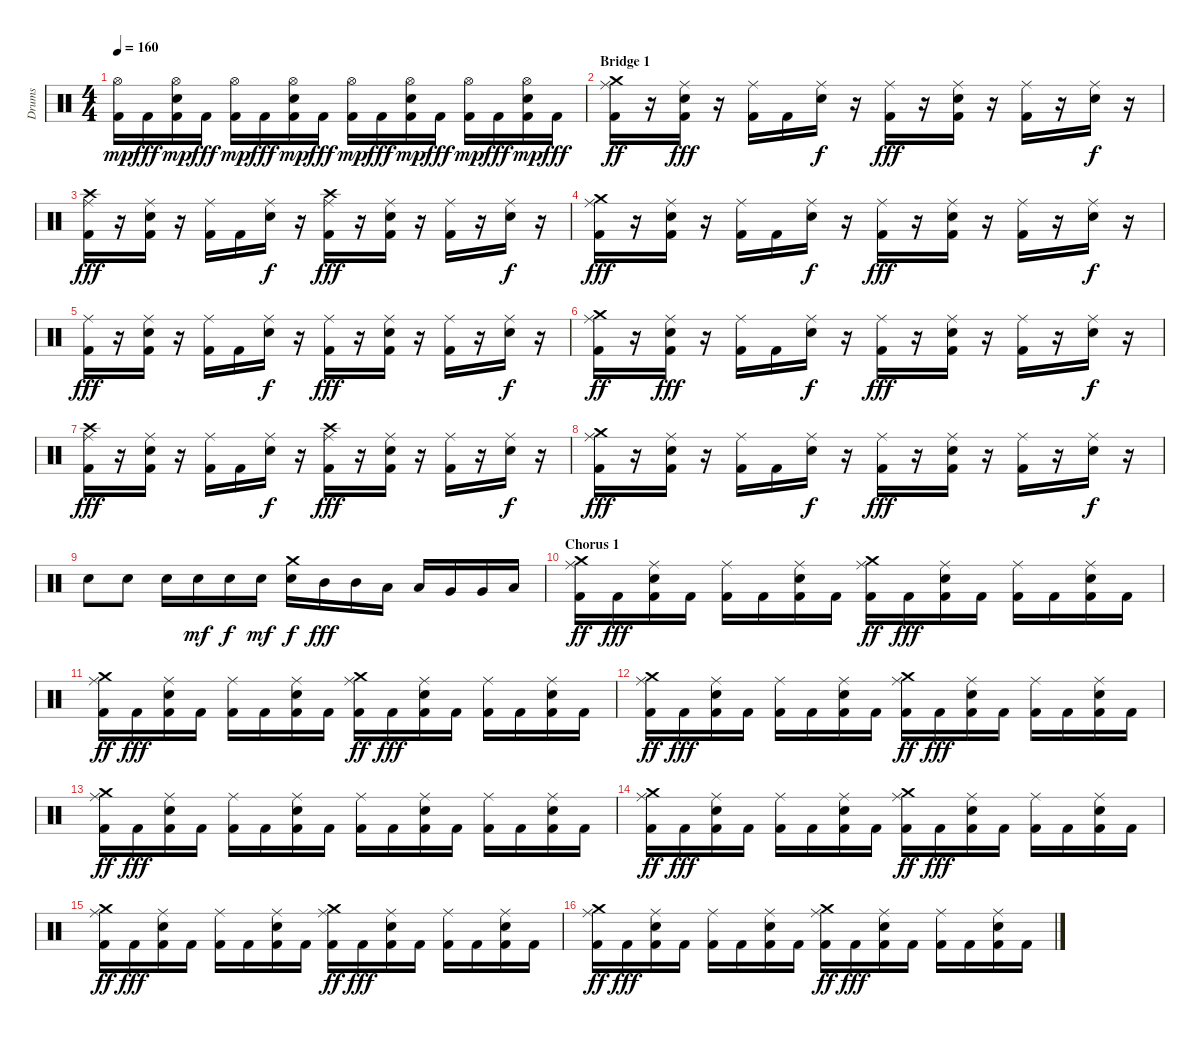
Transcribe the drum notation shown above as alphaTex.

\track ("Drums" "Drums") {instrument percussion}
\staff {score}
\articulation defaults
\ts (4 4)
\tempo 160
\clef neutral
\ks c
("Kick (hit) 2" "Hi-Hat (open)").16{dy mp} "Kick (hit) 2".16{dy fff} ("Kick (hit) 2" "Hi-Hat (open)" "Snare (hit) 2").16{dy mp} "Kick (hit) 2".16{dy fff} ("Kick (hit) 2" "Hi-Hat (open)").16{dy mp} "Kick (hit) 2".16{dy fff} ("Kick (hit) 2" "Hi-Hat (open)" "Snare (hit) 2").16{dy mp} "Kick (hit) 2".16{dy fff} ("Kick (hit) 2" "Hi-Hat (open)").16{dy mp} "Kick (hit) 2".16{dy fff} ("Kick (hit) 2" "Hi-Hat (open)" "Snare (hit) 2").16{dy mp} "Kick (hit) 2".16{dy fff} ("Kick (hit) 2" "Hi-Hat (open)").16{dy mp} "Kick (hit) 2".16{dy fff} ("Kick (hit) 2" "Hi-Hat (open)" "Snare (hit) 2").16{dy mp} "Kick (hit) 2".16{dy fff} |
\section ("" "Bridge 1")
("Kick (hit) 2" "Ride (middle)" "Crash medium (hit)").16{dy ff} r.16 ("Kick (hit) 2" "Ride (middle)" "Snare (hit) 2").16{dy fff} r.16 ("Kick (hit) 2" "Ride (middle)").16 "Kick (hit) 2".16 ("Ride (middle)" "Snare (hit) 2").16{dy f} r.16 ("Kick (hit) 2" "Ride (middle)").16{dy fff} r.16 ("Kick (hit) 2" "Ride (middle)" "Snare (hit) 2").16 r.16 ("Kick (hit) 2" "Ride (middle)").16 r.16 ("Ride (middle)" "Snare (hit) 2").16{dy f} r.16 |
("Kick (hit) 2" "Ride (middle)" "Crash high (hit)").16{dy fff} r.16 ("Kick (hit) 2" "Ride (middle)" "Snare (hit) 2").16 r.16 ("Kick (hit) 2" "Ride (middle)").16 "Kick (hit) 2".16 ("Ride (middle)" "Snare (hit) 2").16{dy f} r.16 ("Kick (hit) 2" "Ride (middle)" "Crash high (hit)").16{dy fff} r.16 ("Kick (hit) 2" "Ride (middle)" "Snare (hit) 2").16 r.16 ("Kick (hit) 2" "Ride (middle)").16 r.16 ("Ride (middle)" "Snare (hit) 2").16{dy f} r.16 |
("Kick (hit) 2" "Ride (middle)" "Crash medium (hit)").16{dy fff} r.16 ("Kick (hit) 2" "Ride (middle)" "Snare (hit) 2").16 r.16 ("Kick (hit) 2" "Ride (middle)").16 "Kick (hit) 2".16 ("Ride (middle)" "Snare (hit) 2").16{dy f} r.16 ("Kick (hit) 2" "Ride (middle)").16{dy fff} r.16 ("Kick (hit) 2" "Ride (middle)" "Snare (hit) 2").16 r.16 ("Kick (hit) 2" "Ride (middle)").16 r.16 ("Ride (middle)" "Snare (hit) 2").16{dy f} r.16 |
("Kick (hit) 2" "Ride (middle)").16{dy fff} r.16 ("Kick (hit) 2" "Ride (middle)" "Snare (hit) 2").16 r.16 ("Kick (hit) 2" "Ride (middle)").16 "Kick (hit) 2".16 ("Ride (middle)" "Snare (hit) 2").16{dy f} r.16 ("Kick (hit) 2" "Ride (middle)").16{dy fff} r.16 ("Kick (hit) 2" "Ride (middle)" "Snare (hit) 2").16 r.16 ("Kick (hit) 2" "Ride (middle)").16 r.16 ("Ride (middle)" "Snare (hit) 2").16{dy f} r.16 |
("Kick (hit) 2" "Ride (middle)" "Crash medium (hit)").16{dy ff} r.16 ("Kick (hit) 2" "Ride (middle)" "Snare (hit) 2").16{dy fff} r.16 ("Kick (hit) 2" "Ride (middle)").16 "Kick (hit) 2".16 ("Ride (middle)" "Snare (hit) 2").16{dy f} r.16 ("Kick (hit) 2" "Ride (middle)").16{dy fff} r.16 ("Kick (hit) 2" "Ride (middle)" "Snare (hit) 2").16 r.16 ("Kick (hit) 2" "Ride (middle)").16 r.16 ("Ride (middle)" "Snare (hit) 2").16{dy f} r.16 |
("Kick (hit) 2" "Ride (middle)" "Crash high (hit)").16{dy fff} r.16 ("Kick (hit) 2" "Ride (middle)" "Snare (hit) 2").16 r.16 ("Kick (hit) 2" "Ride (middle)").16 "Kick (hit) 2".16 ("Ride (middle)" "Snare (hit) 2").16{dy f} r.16 ("Kick (hit) 2" "Ride (middle)" "Crash high (hit)").16{dy fff} r.16 ("Kick (hit) 2" "Ride (middle)" "Snare (hit) 2").16 r.16 ("Kick (hit) 2" "Ride (middle)").16 r.16 ("Ride (middle)" "Snare (hit) 2").16{dy f} r.16 |
("Kick (hit) 2" "Ride (middle)" "Crash medium (hit)").16{dy fff} r.16 ("Kick (hit) 2" "Ride (middle)" "Snare (hit) 2").16 r.16 ("Kick (hit) 2" "Ride (middle)").16 "Kick (hit) 2".16 ("Ride (middle)" "Snare (hit) 2").16{dy f} r.16 ("Kick (hit) 2" "Ride (middle)").16{dy fff} r.16 ("Kick (hit) 2" "Ride (middle)" "Snare (hit) 2").16 r.16 ("Kick (hit) 2" "Ride (middle)").16 r.16 ("Ride (middle)" "Snare (hit) 2").16{dy f} r.16 |
"Snare (hit) 2".8 "Snare (hit) 2".8 "Snare (hit) 2".16 "Snare (hit) 2".16{dy mf} "Snare (hit) 2".16{dy f} "Snare (hit) 2".16{dy mf} ("Snare (hit) 2" "Crash medium (hit)").16{dy f} "Mid Tom (hit)".16{dy fff} "Mid Tom (hit)".16 "Low Tom (hit)".16 "Low Tom (hit)".16 "Very Low Tom (hit)".16 "Very Low Tom (hit)".16 "Low Floor Tom (hit)".16 |
\section ("" "Chorus 1")
("Kick (hit) 2" "Ride (middle)" "Crash medium (hit)").16{dy ff} "Kick (hit) 2".16{dy fff} ("Kick (hit) 2" "Ride (middle)" "Snare (hit) 2").16 "Kick (hit) 2".16 ("Kick (hit) 2" "Ride (middle)").16 "Kick (hit) 2".16 ("Kick (hit) 2" "Ride (middle)" "Snare (hit) 2").16 "Kick (hit) 2".16 ("Kick (hit) 2" "Ride (middle)" "Crash medium (hit)").16{dy ff} "Kick (hit) 2".16{dy fff} ("Kick (hit) 2" "Ride (middle)" "Snare (hit) 2").16 "Kick (hit) 2".16 ("Kick (hit) 2" "Ride (middle)").16 "Kick (hit) 2".16 ("Kick (hit) 2" "Ride (middle)" "Snare (hit) 2").16 "Kick (hit) 2".16 |
("Kick (hit) 2" "Ride (middle)" "Crash medium (hit)").16{dy ff} "Kick (hit) 2".16{dy fff} ("Kick (hit) 2" "Ride (middle)" "Snare (hit) 2").16 "Kick (hit) 2".16 ("Kick (hit) 2" "Ride (middle)").16 "Kick (hit) 2".16 ("Kick (hit) 2" "Ride (middle)" "Snare (hit) 2").16 "Kick (hit) 2".16 ("Kick (hit) 2" "Ride (middle)" "Crash medium (hit)").16{dy ff} "Kick (hit) 2".16{dy fff} ("Kick (hit) 2" "Ride (middle)" "Snare (hit) 2").16 "Kick (hit) 2".16 ("Kick (hit) 2" "Ride (middle)").16 "Kick (hit) 2".16 ("Kick (hit) 2" "Ride (middle)" "Snare (hit) 2").16 "Kick (hit) 2".16 |
("Kick (hit) 2" "Ride (middle)" "Crash medium (hit)").16{dy ff} "Kick (hit) 2".16{dy fff} ("Kick (hit) 2" "Ride (middle)" "Snare (hit) 2").16 "Kick (hit) 2".16 ("Kick (hit) 2" "Ride (middle)").16 "Kick (hit) 2".16 ("Kick (hit) 2" "Ride (middle)" "Snare (hit) 2").16 "Kick (hit) 2".16 ("Kick (hit) 2" "Ride (middle)" "Crash medium (hit)").16{dy ff} "Kick (hit) 2".16{dy fff} ("Kick (hit) 2" "Ride (middle)" "Snare (hit) 2").16 "Kick (hit) 2".16 ("Kick (hit) 2" "Ride (middle)").16 "Kick (hit) 2".16 ("Kick (hit) 2" "Ride (middle)" "Snare (hit) 2").16 "Kick (hit) 2".16 |
("Kick (hit) 2" "Ride (middle)" "Crash medium (hit)").16{dy ff} "Kick (hit) 2".16{dy fff} ("Kick (hit) 2" "Ride (middle)" "Snare (hit) 2").16 "Kick (hit) 2".16 ("Kick (hit) 2" "Ride (middle)").16 "Kick (hit) 2".16 ("Kick (hit) 2" "Ride (middle)" "Snare (hit) 2").16 "Kick (hit) 2".16 ("Kick (hit) 2" "Ride (middle)").16 "Kick (hit) 2".16 ("Kick (hit) 2" "Ride (middle)" "Snare (hit) 2").16 "Kick (hit) 2".16 ("Kick (hit) 2" "Ride (middle)").16 "Kick (hit) 2".16 ("Kick (hit) 2" "Ride (middle)" "Snare (hit) 2").16 "Kick (hit) 2".16 |
("Kick (hit) 2" "Ride (middle)" "Crash medium (hit)").16{dy ff} "Kick (hit) 2".16{dy fff} ("Kick (hit) 2" "Ride (middle)" "Snare (hit) 2").16 "Kick (hit) 2".16 ("Kick (hit) 2" "Ride (middle)").16 "Kick (hit) 2".16 ("Kick (hit) 2" "Ride (middle)" "Snare (hit) 2").16 "Kick (hit) 2".16 ("Kick (hit) 2" "Ride (middle)" "Crash medium (hit)").16{dy ff} "Kick (hit) 2".16{dy fff} ("Kick (hit) 2" "Ride (middle)" "Snare (hit) 2").16 "Kick (hit) 2".16 ("Kick (hit) 2" "Ride (middle)").16 "Kick (hit) 2".16 ("Kick (hit) 2" "Ride (middle)" "Snare (hit) 2").16 "Kick (hit) 2".16 |
("Kick (hit) 2" "Ride (middle)" "Crash medium (hit)").16{dy ff} "Kick (hit) 2".16{dy fff} ("Kick (hit) 2" "Ride (middle)" "Snare (hit) 2").16 "Kick (hit) 2".16 ("Kick (hit) 2" "Ride (middle)").16 "Kick (hit) 2".16 ("Kick (hit) 2" "Ride (middle)" "Snare (hit) 2").16 "Kick (hit) 2".16 ("Kick (hit) 2" "Ride (middle)" "Crash medium (hit)").16{dy ff} "Kick (hit) 2".16{dy fff} ("Kick (hit) 2" "Ride (middle)" "Snare (hit) 2").16 "Kick (hit) 2".16 ("Kick (hit) 2" "Ride (middle)").16 "Kick (hit) 2".16 ("Kick (hit) 2" "Ride (middle)" "Snare (hit) 2").16 "Kick (hit) 2".16 |
("Kick (hit) 2" "Ride (middle)" "Crash medium (hit)").16{dy ff} "Kick (hit) 2".16{dy fff} ("Kick (hit) 2" "Ride (middle)" "Snare (hit) 2").16 "Kick (hit) 2".16 ("Kick (hit) 2" "Ride (middle)").16 "Kick (hit) 2".16 ("Kick (hit) 2" "Ride (middle)" "Snare (hit) 2").16 "Kick (hit) 2".16 ("Kick (hit) 2" "Ride (middle)" "Crash medium (hit)").16{dy ff} "Kick (hit) 2".16{dy fff} ("Kick (hit) 2" "Ride (middle)" "Snare (hit) 2").16 "Kick (hit) 2".16 ("Kick (hit) 2" "Ride (middle)").16 "Kick (hit) 2".16 ("Kick (hit) 2" "Ride (middle)" "Snare (hit) 2").16 "Kick (hit) 2".16
